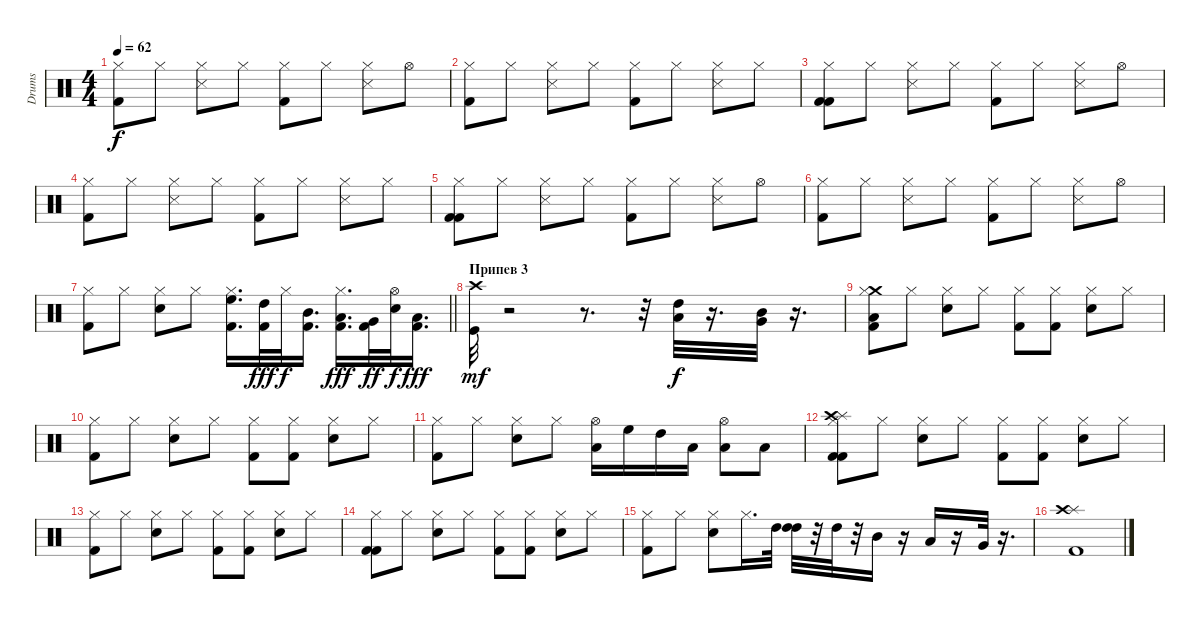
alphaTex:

\track ("Drums" "Drums") {instrument percussion}
\staff {score}
\articulation defaults
\ts (4 4)
\tempo 62
\clef neutral
\ks c
("Kick (hit) 2" "Hi-Hat (closed)").8{dy f} "Hi-Hat (closed)".8 ("Snare (side stick) 3" "Hi-Hat (closed)").8 "Hi-Hat (closed)".8 ("Kick (hit) 2" "Hi-Hat (closed)").8 "Hi-Hat (closed)".8 ("Snare (side stick) 3" "Hi-Hat (closed)").8 "Hi-Hat (open)".8 |
("Kick (hit) 2" "Hi-Hat (closed)").8 "Hi-Hat (closed)".8 ("Snare (side stick) 3" "Hi-Hat (closed)").8 "Hi-Hat (closed)".8 ("Kick (hit) 2" "Hi-Hat (closed)").8 "Hi-Hat (closed)".8 ("Snare (side stick) 3" "Hi-Hat (closed)").8 "Hi-Hat (closed)".8 |
("Kick (hit) 2" "Hi-Hat (closed)" "Kick (hit) 2").8 "Hi-Hat (closed)".8 ("Snare (side stick) 3" "Hi-Hat (closed)").8 "Hi-Hat (closed)".8 ("Kick (hit) 2" "Hi-Hat (closed)").8 "Hi-Hat (closed)".8 ("Snare (side stick) 3" "Hi-Hat (closed)").8 "Hi-Hat (open)".8 |
("Kick (hit) 2" "Hi-Hat (closed)").8 "Hi-Hat (closed)".8 ("Snare (side stick) 3" "Hi-Hat (closed)").8 "Hi-Hat (closed)".8 ("Kick (hit) 2" "Hi-Hat (closed)").8 "Hi-Hat (closed)".8 ("Snare (side stick) 3" "Hi-Hat (closed)").8 "Hi-Hat (closed)".8 |
("Kick (hit) 2" "Hi-Hat (closed)" "Kick (hit) 2").8 "Hi-Hat (closed)".8 ("Snare (side stick) 3" "Hi-Hat (closed)").8 "Hi-Hat (closed)".8 ("Kick (hit) 2" "Hi-Hat (closed)").8 "Hi-Hat (closed)".8 ("Snare (side stick) 3" "Hi-Hat (closed)").8 "Hi-Hat (open)".8 |
("Kick (hit) 2" "Hi-Hat (closed)").8 "Hi-Hat (closed)".8 ("Snare (side stick) 3" "Hi-Hat (closed)").8 "Hi-Hat (closed)".8 ("Kick (hit) 2" "Hi-Hat (closed)").8 "Hi-Hat (closed)".8 ("Snare (side stick) 3" "Hi-Hat (closed)").8 "Hi-Hat (open)".8 |
\barLineRight lightlight
("Kick (hit) 2" "Hi-Hat (closed)").8 "Hi-Hat (closed)".8 ("Snare (hit) 2" "Hi-Hat (closed)").8 "Hi-Hat (closed)".8 ("High Floor Tom (hit)" "Hi-Hat (closed)" "Kick (hit) 2").16{d} ("High Tom (hit)" "Kick (hit) 2").32{dy fff} "Hi-Hat (closed)".32{dy f} ("Mid Tom (hit)" "Kick (hit) 2").16{d} ("Hi-Hat (closed)" "Low Tom (hit)" "Kick (hit) 2").16{d dy fff} ("Very Low Tom (hit)" "Kick (hit) 2").32{dy ff} ("Snare (hit) 2" "Hi-Hat (open)").32{dy f} ("Low Floor Tom (hit)" "Kick (hit) 2").16{d dy fff} |
\section ("" "Припев 3")
("Crash high (hit)" "Kick (hit)").32{dy mf} r.2 r.8{d} r.32 ("Low Tom (hit)" "High Tom (hit)").32{dy f} r.16{d} ("Very Low Tom (hit)" "Mid Tom (hit)").32 r.16{d} |
("Low Floor Tom (hit)" "Crash medium (hit)" "Kick (hit) 2" "Hi-Hat (closed)").8 "Hi-Hat (closed)".8 ("Snare (hit) 2" "Hi-Hat (closed)").8 "Hi-Hat (closed)".8 ("Kick (hit) 2" "Hi-Hat (closed)").8 ("Kick (hit) 2" "Hi-Hat (closed)").8 ("Snare (hit) 2" "Hi-Hat (closed)").8 "Hi-Hat (closed)".8 |
("Kick (hit) 2" "Hi-Hat (closed)").8 "Hi-Hat (closed)".8 ("Snare (hit) 2" "Hi-Hat (closed)").8 "Hi-Hat (closed)".8 ("Kick (hit) 2" "Hi-Hat (closed)").8 ("Kick (hit) 2" "Hi-Hat (closed)").8 ("Snare (hit) 2" "Hi-Hat (closed)").8 "Hi-Hat (closed)".8 |
("Kick (hit) 2" "Hi-Hat (closed)").8 "Hi-Hat (closed)".8 ("Snare (hit) 2" "Hi-Hat (closed)").8 "Hi-Hat (closed)".8 ("Hi-Hat (open)" "Low Tom (hit)").16 "High Floor Tom (hit)".16 "High Tom (hit)".16 "Low Tom (hit)".16 ("Hi-Hat (open)" "Low Floor Tom (hit)").8 "Low Floor Tom (hit)".8 |
("Kick (hit) 2" "Hi-Hat (closed)" "Splash (hit)" "Crash high (hit)" "Kick (hit) 2").8 "Hi-Hat (closed)".8 ("Snare (hit) 2" "Hi-Hat (closed)").8 "Hi-Hat (closed)".8 ("Kick (hit) 2" "Hi-Hat (closed)").8 ("Kick (hit) 2" "Hi-Hat (closed)").8 ("Snare (hit) 2" "Hi-Hat (closed)").8 "Hi-Hat (closed)".8 |
("Kick (hit) 2" "Hi-Hat (closed)").8 "Hi-Hat (closed)".8 ("Snare (hit) 2" "Hi-Hat (closed)").8 "Hi-Hat (closed)".8 ("Kick (hit) 2" "Hi-Hat (closed)").8 ("Kick (hit) 2" "Hi-Hat (closed)").8 ("Snare (hit) 2" "Hi-Hat (closed)").8 "Hi-Hat (closed)".8 |
("Kick (hit) 2" "Hi-Hat (closed)" "Kick (hit) 2").8 "Hi-Hat (closed)".8 ("Snare (hit) 2" "Hi-Hat (closed)").8 "Hi-Hat (closed)".8 ("Kick (hit) 2" "Hi-Hat (closed)").8 ("Kick (hit) 2" "Hi-Hat (closed)").8 ("Snare (hit) 2" "Hi-Hat (closed)").8 "Hi-Hat (closed)".8 |
("Kick (hit) 2" "Hi-Hat (closed)").8 "Hi-Hat (closed)".8 ("Snare (hit) 2" "Hi-Hat (closed)").8 "Hi-Hat (closed)".16{d} "High Tom (hit)".32 ("High Tom (hit)" "High Tom (hit)").32 r.32 "High Tom (hit)".32 r.32 "Mid Tom (hit)".16 r.16 "Low Tom (hit)".16 r.16 "Very Low Tom (hit)".32 r.16{d} |
("Splash (hit)" "Crash high (hit)" "Kick (hit) 2").1
